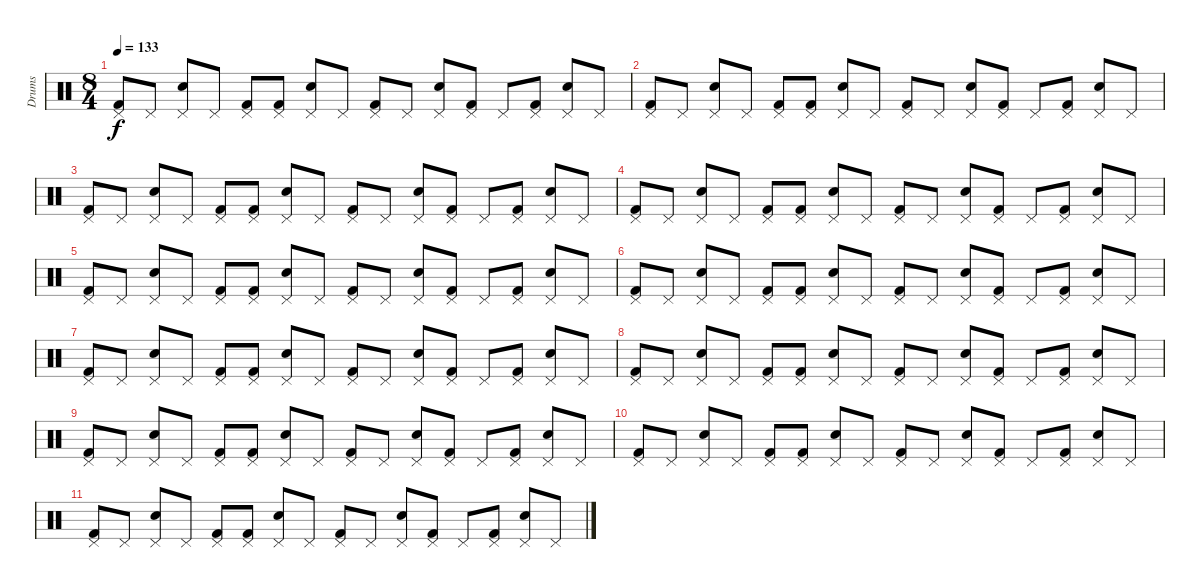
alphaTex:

\track ("Drums" "Drums") {instrument percussion}
\staff {score}
\articulation defaults
\ts (8 4)
\tempo 133
\clef neutral
\ks c
("Pedal Hi-Hat (hit)" "Kick (hit) 2").8{dy f} "Pedal Hi-Hat (hit)".8 ("Pedal Hi-Hat (hit)" "Snare (hit) 2").8 "Pedal Hi-Hat (hit)".8 ("Pedal Hi-Hat (hit)" "Kick (hit) 2").8 ("Pedal Hi-Hat (hit)" "Kick (hit) 2").8 ("Pedal Hi-Hat (hit)" "Snare (hit) 2").8 "Pedal Hi-Hat (hit)".8 ("Pedal Hi-Hat (hit)" "Kick (hit) 2").8 "Pedal Hi-Hat (hit)".8 ("Pedal Hi-Hat (hit)" "Snare (hit) 2").8 ("Pedal Hi-Hat (hit)" "Kick (hit) 2").8 "Pedal Hi-Hat (hit)".8 ("Pedal Hi-Hat (hit)" "Kick (hit) 2").8 ("Pedal Hi-Hat (hit)" "Snare (hit) 2").8 "Pedal Hi-Hat (hit)".8 |
("Pedal Hi-Hat (hit)" "Kick (hit) 2").8 "Pedal Hi-Hat (hit)".8 ("Pedal Hi-Hat (hit)" "Snare (hit) 2").8 "Pedal Hi-Hat (hit)".8 ("Pedal Hi-Hat (hit)" "Kick (hit) 2").8 ("Pedal Hi-Hat (hit)" "Kick (hit) 2").8 ("Pedal Hi-Hat (hit)" "Snare (hit) 2").8 "Pedal Hi-Hat (hit)".8 ("Pedal Hi-Hat (hit)" "Kick (hit) 2").8 "Pedal Hi-Hat (hit)".8 ("Pedal Hi-Hat (hit)" "Snare (hit) 2").8 ("Pedal Hi-Hat (hit)" "Kick (hit) 2").8 "Pedal Hi-Hat (hit)".8 ("Pedal Hi-Hat (hit)" "Kick (hit) 2").8 ("Pedal Hi-Hat (hit)" "Snare (hit) 2").8 "Pedal Hi-Hat (hit)".8 |
("Pedal Hi-Hat (hit)" "Kick (hit) 2").8 "Pedal Hi-Hat (hit)".8 ("Pedal Hi-Hat (hit)" "Snare (hit) 2").8 "Pedal Hi-Hat (hit)".8 ("Pedal Hi-Hat (hit)" "Kick (hit) 2").8 ("Pedal Hi-Hat (hit)" "Kick (hit) 2").8 ("Pedal Hi-Hat (hit)" "Snare (hit) 2").8 "Pedal Hi-Hat (hit)".8 ("Pedal Hi-Hat (hit)" "Kick (hit) 2").8 "Pedal Hi-Hat (hit)".8 ("Pedal Hi-Hat (hit)" "Snare (hit) 2").8 ("Pedal Hi-Hat (hit)" "Kick (hit) 2").8 "Pedal Hi-Hat (hit)".8 ("Pedal Hi-Hat (hit)" "Kick (hit) 2").8 ("Pedal Hi-Hat (hit)" "Snare (hit) 2").8 "Pedal Hi-Hat (hit)".8 |
("Pedal Hi-Hat (hit)" "Kick (hit) 2").8 "Pedal Hi-Hat (hit)".8 ("Pedal Hi-Hat (hit)" "Snare (hit) 2").8 "Pedal Hi-Hat (hit)".8 ("Pedal Hi-Hat (hit)" "Kick (hit) 2").8 ("Pedal Hi-Hat (hit)" "Kick (hit) 2").8 ("Pedal Hi-Hat (hit)" "Snare (hit) 2").8 "Pedal Hi-Hat (hit)".8 ("Pedal Hi-Hat (hit)" "Kick (hit) 2").8 "Pedal Hi-Hat (hit)".8 ("Pedal Hi-Hat (hit)" "Snare (hit) 2").8 ("Pedal Hi-Hat (hit)" "Kick (hit) 2").8 "Pedal Hi-Hat (hit)".8 ("Pedal Hi-Hat (hit)" "Kick (hit) 2").8 ("Pedal Hi-Hat (hit)" "Snare (hit) 2").8 "Pedal Hi-Hat (hit)".8 |
("Pedal Hi-Hat (hit)" "Kick (hit) 2").8 "Pedal Hi-Hat (hit)".8 ("Pedal Hi-Hat (hit)" "Snare (hit) 2").8 "Pedal Hi-Hat (hit)".8 ("Pedal Hi-Hat (hit)" "Kick (hit) 2").8 ("Pedal Hi-Hat (hit)" "Kick (hit) 2").8 ("Pedal Hi-Hat (hit)" "Snare (hit) 2").8 "Pedal Hi-Hat (hit)".8 ("Pedal Hi-Hat (hit)" "Kick (hit) 2").8 "Pedal Hi-Hat (hit)".8 ("Pedal Hi-Hat (hit)" "Snare (hit) 2").8 ("Pedal Hi-Hat (hit)" "Kick (hit) 2").8 "Pedal Hi-Hat (hit)".8 ("Pedal Hi-Hat (hit)" "Kick (hit) 2").8 ("Pedal Hi-Hat (hit)" "Snare (hit) 2").8 "Pedal Hi-Hat (hit)".8 |
("Pedal Hi-Hat (hit)" "Kick (hit) 2").8 "Pedal Hi-Hat (hit)".8 ("Pedal Hi-Hat (hit)" "Snare (hit) 2").8 "Pedal Hi-Hat (hit)".8 ("Pedal Hi-Hat (hit)" "Kick (hit) 2").8 ("Pedal Hi-Hat (hit)" "Kick (hit) 2").8 ("Pedal Hi-Hat (hit)" "Snare (hit) 2").8 "Pedal Hi-Hat (hit)".8 ("Pedal Hi-Hat (hit)" "Kick (hit) 2").8 "Pedal Hi-Hat (hit)".8 ("Pedal Hi-Hat (hit)" "Snare (hit) 2").8 ("Pedal Hi-Hat (hit)" "Kick (hit) 2").8 "Pedal Hi-Hat (hit)".8 ("Pedal Hi-Hat (hit)" "Kick (hit) 2").8 ("Pedal Hi-Hat (hit)" "Snare (hit) 2").8 "Pedal Hi-Hat (hit)".8 |
("Pedal Hi-Hat (hit)" "Kick (hit) 2").8 "Pedal Hi-Hat (hit)".8 ("Pedal Hi-Hat (hit)" "Snare (hit) 2").8 "Pedal Hi-Hat (hit)".8 ("Pedal Hi-Hat (hit)" "Kick (hit) 2").8 ("Pedal Hi-Hat (hit)" "Kick (hit) 2").8 ("Pedal Hi-Hat (hit)" "Snare (hit) 2").8 "Pedal Hi-Hat (hit)".8 ("Pedal Hi-Hat (hit)" "Kick (hit) 2").8 "Pedal Hi-Hat (hit)".8 ("Pedal Hi-Hat (hit)" "Snare (hit) 2").8 ("Pedal Hi-Hat (hit)" "Kick (hit) 2").8 "Pedal Hi-Hat (hit)".8 ("Pedal Hi-Hat (hit)" "Kick (hit) 2").8 ("Pedal Hi-Hat (hit)" "Snare (hit) 2").8 "Pedal Hi-Hat (hit)".8 |
("Pedal Hi-Hat (hit)" "Kick (hit) 2").8 "Pedal Hi-Hat (hit)".8 ("Pedal Hi-Hat (hit)" "Snare (hit) 2").8 "Pedal Hi-Hat (hit)".8 ("Pedal Hi-Hat (hit)" "Kick (hit) 2").8 ("Pedal Hi-Hat (hit)" "Kick (hit) 2").8 ("Pedal Hi-Hat (hit)" "Snare (hit) 2").8 "Pedal Hi-Hat (hit)".8 ("Pedal Hi-Hat (hit)" "Kick (hit) 2").8 "Pedal Hi-Hat (hit)".8 ("Pedal Hi-Hat (hit)" "Snare (hit) 2").8 ("Pedal Hi-Hat (hit)" "Kick (hit) 2").8 "Pedal Hi-Hat (hit)".8 ("Pedal Hi-Hat (hit)" "Kick (hit) 2").8 ("Pedal Hi-Hat (hit)" "Snare (hit) 2").8 "Pedal Hi-Hat (hit)".8 |
("Pedal Hi-Hat (hit)" "Kick (hit) 2").8 "Pedal Hi-Hat (hit)".8 ("Pedal Hi-Hat (hit)" "Snare (hit) 2").8 "Pedal Hi-Hat (hit)".8 ("Pedal Hi-Hat (hit)" "Kick (hit) 2").8 ("Pedal Hi-Hat (hit)" "Kick (hit) 2").8 ("Pedal Hi-Hat (hit)" "Snare (hit) 2").8 "Pedal Hi-Hat (hit)".8 ("Pedal Hi-Hat (hit)" "Kick (hit) 2").8 "Pedal Hi-Hat (hit)".8 ("Pedal Hi-Hat (hit)" "Snare (hit) 2").8 ("Pedal Hi-Hat (hit)" "Kick (hit) 2").8 "Pedal Hi-Hat (hit)".8 ("Pedal Hi-Hat (hit)" "Kick (hit) 2").8 ("Pedal Hi-Hat (hit)" "Snare (hit) 2").8 "Pedal Hi-Hat (hit)".8 |
("Pedal Hi-Hat (hit)" "Kick (hit) 2").8 "Pedal Hi-Hat (hit)".8 ("Pedal Hi-Hat (hit)" "Snare (hit) 2").8 "Pedal Hi-Hat (hit)".8 ("Pedal Hi-Hat (hit)" "Kick (hit) 2").8 ("Pedal Hi-Hat (hit)" "Kick (hit) 2").8 ("Pedal Hi-Hat (hit)" "Snare (hit) 2").8 "Pedal Hi-Hat (hit)".8 ("Pedal Hi-Hat (hit)" "Kick (hit) 2").8 "Pedal Hi-Hat (hit)".8 ("Pedal Hi-Hat (hit)" "Snare (hit) 2").8 ("Pedal Hi-Hat (hit)" "Kick (hit) 2").8 "Pedal Hi-Hat (hit)".8 ("Pedal Hi-Hat (hit)" "Kick (hit) 2").8 ("Pedal Hi-Hat (hit)" "Snare (hit) 2").8 "Pedal Hi-Hat (hit)".8 |
("Pedal Hi-Hat (hit)" "Kick (hit) 2").8 "Pedal Hi-Hat (hit)".8 ("Pedal Hi-Hat (hit)" "Snare (hit) 2").8 "Pedal Hi-Hat (hit)".8 ("Pedal Hi-Hat (hit)" "Kick (hit) 2").8 ("Pedal Hi-Hat (hit)" "Kick (hit) 2").8 ("Pedal Hi-Hat (hit)" "Snare (hit) 2").8 "Pedal Hi-Hat (hit)".8 ("Pedal Hi-Hat (hit)" "Kick (hit) 2").8 "Pedal Hi-Hat (hit)".8 ("Pedal Hi-Hat (hit)" "Snare (hit) 2").8 ("Pedal Hi-Hat (hit)" "Kick (hit) 2").8 "Pedal Hi-Hat (hit)".8 ("Pedal Hi-Hat (hit)" "Kick (hit) 2").8 ("Pedal Hi-Hat (hit)" "Snare (hit) 2").8 "Pedal Hi-Hat (hit)".8
